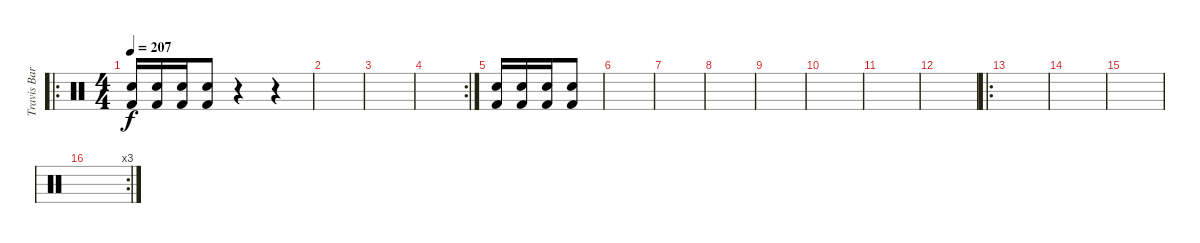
\track ("Travis Barker" "Travis Bar") {instrument percussion}
\staff {score}
\articulation defaults
\ro
\ts (4 4)
\tempo 207
\clef neutral
\ks c
("Kick (hit) 2" "Snare (hit) 2").16{dy f} ("Kick (hit) 2" "Snare (hit) 2").16 ("Kick (hit) 2" "Snare (hit) 2").16 ("Kick (hit) 2" "Snare (hit) 2").8 r.4 r.4 |
|
|
\rc 2
|
("Kick (hit) 2" "Snare (hit) 2").16 ("Kick (hit) 2" "Snare (hit) 2").16 ("Kick (hit) 2" "Snare (hit) 2").16 ("Kick (hit) 2" "Snare (hit) 2").8 |
|
|
|
|
|
|
|
\ro
|
|
|
\rc 3
